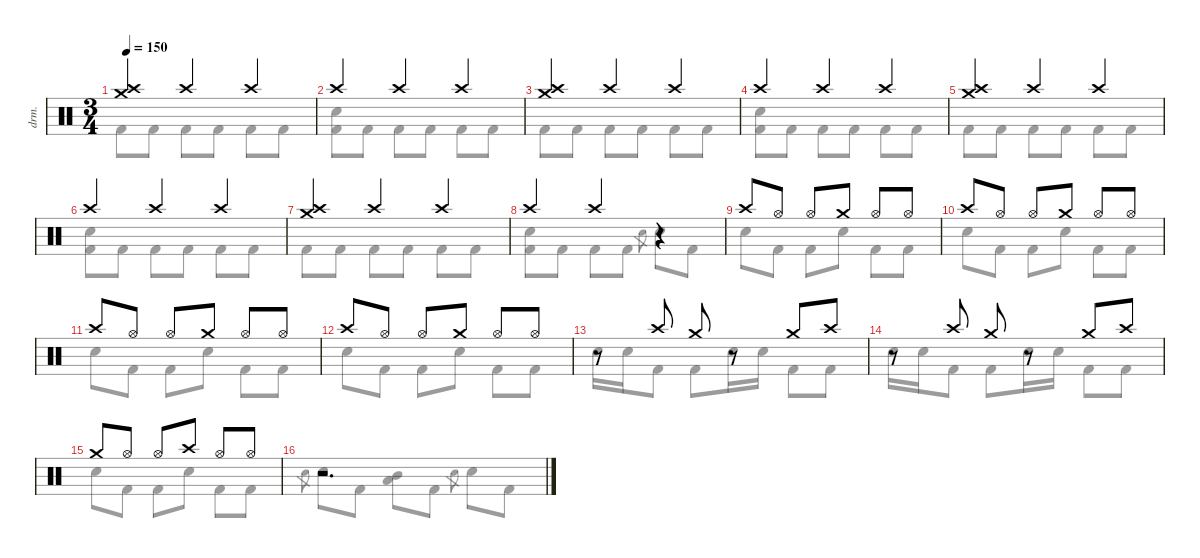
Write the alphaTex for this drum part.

\defaultSystemsLayout 4
\hideDynamics
\bracketExtendMode nobrackets
\otherSystemsTrackNameOrientation horizontal
\track ("B. Richardson Drums" "drm.") {instrument percussion}
\staff {score}
\articulation defaults
\voice
\ts (3 4)
\tempo 150
\clef neutral
\ks c
("Crash high (hit)" "Crash medium (hit)").4{dy mf beam Up} "Crash high (hit)".4{beam Up} "Crash high (hit)".4{beam Up} |
"Crash high (hit)".4{beam Up} "Crash high (hit)".4{beam Up} "Crash high (hit)".4{beam Up} |
("Crash high (hit)" "Crash medium (hit)").4{beam Up} "Crash high (hit)".4{beam Up} "Crash high (hit)".4{beam Up} |
"Crash high (hit)".4{beam Up} "Crash high (hit)".4{beam Up} "Crash high (hit)".4{beam Up} |
("Crash high (hit)" "Crash medium (hit)").4{beam Up} "Crash high (hit)".4{beam Up} "Crash high (hit)".4{beam Up} |
"Crash high (hit)".4{beam Up} "Crash high (hit)".4{beam Up} "Crash high (hit)".4{beam Up} |
("Crash high (hit)" "Crash medium (hit)").4{beam Up} "Crash high (hit)".4{beam Up} "Crash high (hit)".4{beam Up} |
"Crash high (hit)".4{beam Up} "Crash high (hit)".4{beam Up} r.4{beam Up} |
"Crash high (hit)".8{beam Up} "Hi-Hat (open)".8{beam Up} "Hi-Hat (open)".8{beam Up} "Crash medium (hit)".8{beam Up} "Hi-Hat (open)".8{beam Up} "Hi-Hat (open)".8{beam Up} |
"Crash high (hit)".8{beam Up} "Hi-Hat (open)".8{beam Up} "Hi-Hat (open)".8{beam Up} "Crash medium (hit)".8{beam Up} "Hi-Hat (open)".8{beam Up} "Hi-Hat (open)".8{beam Up} |
"Crash high (hit)".8{beam Up} "Hi-Hat (open)".8{beam Up} "Hi-Hat (open)".8{beam Up} "Crash medium (hit)".8{beam Up} "Hi-Hat (open)".8{beam Up} "Hi-Hat (open)".8{beam Up} |
"Crash high (hit)".8{beam Up} "Hi-Hat (open)".8{beam Up} "Hi-Hat (open)".8{beam Up} "Crash medium (hit)".8{beam Up} "Hi-Hat (open)".8{beam Up} "Hi-Hat (open)".8{beam Up} |
r.8{beam Up} "Crash high (hit)".8{beam Up} "Crash medium (hit)".8{beam Up} r.8{beam Up} "Crash medium (hit)".8{beam Up} "Crash high (hit)".8{beam Up} |
r.8{beam Up} "Crash high (hit)".8{beam Up} "Crash medium (hit)".8{beam Up} r.8{beam Up} "Crash medium (hit)".8{beam Up} "Crash high (hit)".8{beam Up} |
"Crash medium (hit)".8{beam Up} "Hi-Hat (open)".8{beam Up} "Hi-Hat (open)".8{beam Up} "Crash high (hit)".8{beam Up} "Hi-Hat (open)".8{beam Up} "Hi-Hat (open)".8{beam Up} |
r.2{d beam Up}
\voice
\clef neutral
\ottava regular
\simile none
\ks c "Kick (hit) 2".8{dy fff beam Down} "Kick (hit) 2".8{beam Down} "Kick (hit) 2".8{beam Down} "Kick (hit) 2".8{beam Down} "Kick (hit) 2".8{beam Down} "Kick (hit) 2".8{beam Down}
|
("Snare (hit) 2" "Kick (hit) 2").8{beam Down} "Kick (hit) 2".8{beam Down} "Kick (hit) 2".8{beam Down} "Kick (hit) 2".8{beam Down} "Kick (hit) 2".8{beam Down} "Kick (hit) 2".8{beam Down} |
"Kick (hit) 2".8{beam Down} "Kick (hit) 2".8{beam Down} "Kick (hit) 2".8{beam Down} "Kick (hit) 2".8{beam Down} "Kick (hit) 2".8{beam Down} "Kick (hit) 2".8{beam Down} |
("Snare (hit) 2" "Kick (hit) 2").8{beam Down} "Kick (hit) 2".8{beam Down} "Kick (hit) 2".8{beam Down} "Kick (hit) 2".8{beam Down} "Kick (hit) 2".8{beam Down} "Kick (hit) 2".8{beam Down} |
"Kick (hit) 2".8{beam Down} "Kick (hit) 2".8{beam Down} "Kick (hit) 2".8{beam Down} "Kick (hit) 2".8{beam Down} "Kick (hit) 2".8{beam Down} "Kick (hit) 2".8{beam Down} |
("Snare (hit) 2" "Kick (hit) 2").8{beam Down} "Kick (hit) 2".8{beam Down} "Kick (hit) 2".8{beam Down} "Kick (hit) 2".8{beam Down} "Kick (hit) 2".8{beam Down} "Kick (hit) 2".8{beam Down} |
"Kick (hit) 2".8{beam Down} "Kick (hit) 2".8{beam Down} "Kick (hit) 2".8{beam Down} "Kick (hit) 2".8{beam Down} "Kick (hit) 2".8{beam Down} "Kick (hit) 2".8{beam Down} |
("Snare (hit) 2" "Kick (hit) 2").8{beam Down} "Kick (hit) 2".8{beam Down} "Kick (hit) 2".8{beam Down} "Kick (hit) 2".8{beam Down} "Electric Snare (hit)".8{gr dy ff beam Down} "Snare (hit) 2".8{dy fff beam Down} "Kick (hit) 2".8{beam Down} |
"Snare (hit) 2".8{beam Down} "Kick (hit) 2".8{beam Down} "Kick (hit) 2".8{beam Down} "Snare (hit) 2".8{beam Down} "Kick (hit) 2".8{beam Down} "Kick (hit) 2".8{beam Down} |
"Snare (hit) 2".8{beam Down} "Kick (hit) 2".8{beam Down} "Kick (hit) 2".8{beam Down} "Snare (hit) 2".8{beam Down} "Kick (hit) 2".8{beam Down} "Kick (hit) 2".8{beam Down} |
"Snare (hit) 2".8{beam Down} "Kick (hit) 2".8{beam Down} "Kick (hit) 2".8{beam Down} "Snare (hit) 2".8{beam Down} "Kick (hit) 2".8{beam Down} "Kick (hit) 2".8{beam Down} |
"Snare (hit) 2".8{beam Down} "Kick (hit) 2".8{beam Down} "Kick (hit) 2".8{beam Down} "Snare (hit) 2".8{beam Down} "Kick (hit) 2".8{beam Down} "Kick (hit) 2".8{beam Down} |
"Snare (hit) 2".16{beam Down} "Snare (hit) 2".16{beam Down} "Kick (hit) 2".8{beam Down} "Kick (hit) 2".8{beam Down} "Snare (hit) 2".16{beam Down} "Snare (hit) 2".16{beam Down} "Kick (hit) 2".8{beam Down} "Kick (hit) 2".8{beam Down} |
"Snare (hit) 2".16{beam Down} "Snare (hit) 2".16{beam Down} "Kick (hit) 2".8{beam Down} "Kick (hit) 2".8{beam Down} "Snare (hit) 2".16{beam Down} "Snare (hit) 2".16{beam Down} "Kick (hit) 2".8{beam Down} "Kick (hit) 2".8{beam Down} |
"Snare (hit) 2".8{beam Down} "Kick (hit) 2".8{beam Down} "Kick (hit) 2".8{beam Down} "Snare (hit) 2".8{beam Down} "Kick (hit) 2".8{beam Down} "Kick (hit) 2".8{beam Down} |
"Electric Snare (hit)".8{gr dy ff beam Down} "Snare (hit) 2".8{dy fff beam Down} "Kick (hit) 2".8{beam Down} ("Mid Tom (hit)" "Low Tom (hit)").8{beam Down} "Kick (hit) 2".8{beam Down} "Electric Snare (hit)".8{gr dy ff beam Down} "Snare (hit) 2".8{dy fff beam Down} "Kick (hit) 2".8{beam Down}
